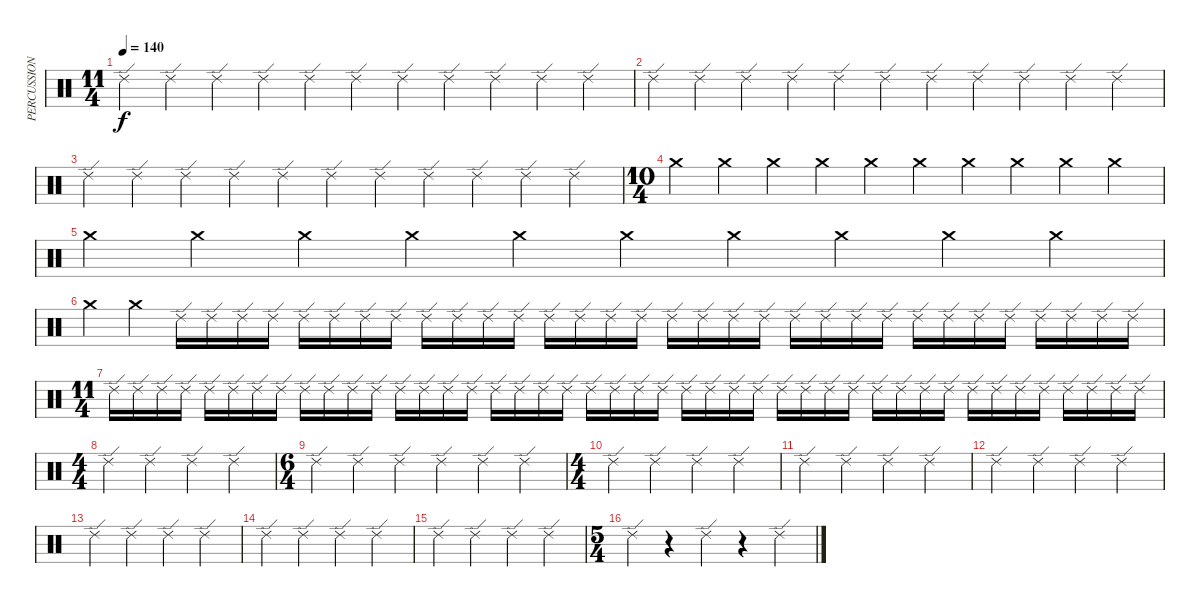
\track ("PERCUSSION" "PERCUSSION") {instrument percussion}
\staff {score}
\articulation defaults
\ts (11 4)
\tempo 140
\clef neutral
\ks c "Ride (edge) 2".4{dy f} "Ride (edge) 2".4 "Ride (edge) 2".4 "Ride (edge) 2".4 "Ride (edge) 2".4 "Ride (edge) 2".4 "Ride (edge) 2".4 "Ride (edge) 2".4 "Ride (edge) 2".4 "Ride (edge) 2".4 "Ride (edge) 2".4
|
"Ride (edge) 2".4 "Ride (edge) 2".4 "Ride (edge) 2".4 "Ride (edge) 2".4 "Ride (edge) 2".4 "Ride (edge) 2".4 "Ride (edge) 2".4 "Ride (edge) 2".4 "Ride (edge) 2".4 "Ride (edge) 2".4 "Ride (edge) 2".4 |
"Ride (edge) 2".4 "Ride (edge) 2".4 "Ride (edge) 2".4 "Ride (edge) 2".4 "Ride (edge) 2".4 "Ride (edge) 2".4 "Ride (edge) 2".4 "Ride (edge) 2".4 "Ride (edge) 2".4 "Ride (edge) 2".4 "Ride (edge) 2".4 |
\ts (10 4)
"Crash medium (hit)".4 "Crash medium (hit)".4 "Crash medium (hit)".4 "Crash medium (hit)".4 "Crash medium (hit)".4 "Crash medium (hit)".4 "Crash medium (hit)".4 "Crash medium (hit)".4 "Crash medium (hit)".4 "Crash medium (hit)".4 |
"Crash medium (hit)".4 "Crash medium (hit)".4 "Crash medium (hit)".4 "Crash medium (hit)".4 "Crash medium (hit)".4 "Crash medium (hit)".4 "Crash medium (hit)".4 "Crash medium (hit)".4 "Crash medium (hit)".4 "Crash medium (hit)".4 |
"Crash medium (hit)".4 "Crash medium (hit)".4 "Ride (edge) 2".16 "Ride (edge) 2".16 "Ride (edge) 2".16 "Ride (edge) 2".16 "Ride (edge) 2".16 "Ride (edge) 2".16 "Ride (edge) 2".16 "Ride (edge) 2".16 "Ride (edge) 2".16 "Ride (edge) 2".16 "Ride (edge) 2".16 "Ride (edge) 2".16 "Ride (edge) 2".16 "Ride (edge) 2".16 "Ride (edge) 2".16 "Ride (edge) 2".16 "Ride (edge) 2".16 "Ride (edge) 2".16 "Ride (edge) 2".16 "Ride (edge) 2".16 "Ride (edge) 2".16 "Ride (edge) 2".16 "Ride (edge) 2".16 "Ride (edge) 2".16 "Ride (edge) 2".16 "Ride (edge) 2".16 "Ride (edge) 2".16 "Ride (edge) 2".16 "Ride (edge) 2".16 "Ride (edge) 2".16 "Ride (edge) 2".16 "Ride (edge) 2".16 |
\ts (11 4)
"Ride (edge) 2".16 "Ride (edge) 2".16 "Ride (edge) 2".16 "Ride (edge) 2".16 "Ride (edge) 2".16 "Ride (edge) 2".16 "Ride (edge) 2".16 "Ride (edge) 2".16 "Ride (edge) 2".16 "Ride (edge) 2".16 "Ride (edge) 2".16 "Ride (edge) 2".16 "Ride (edge) 2".16 "Ride (edge) 2".16 "Ride (edge) 2".16 "Ride (edge) 2".16 "Ride (edge) 2".16 "Ride (edge) 2".16 "Ride (edge) 2".16 "Ride (edge) 2".16 "Ride (edge) 2".16 "Ride (edge) 2".16 "Ride (edge) 2".16 "Ride (edge) 2".16 "Ride (edge) 2".16 "Ride (edge) 2".16 "Ride (edge) 2".16 "Ride (edge) 2".16 "Ride (edge) 2".16 "Ride (edge) 2".16 "Ride (edge) 2".16 "Ride (edge) 2".16 "Ride (edge) 2".16 "Ride (edge) 2".16 "Ride (edge) 2".16 "Ride (edge) 2".16 "Ride (edge) 2".16 "Ride (edge) 2".16 "Ride (edge) 2".16 "Ride (edge) 2".16 "Ride (edge) 2".16 "Ride (edge) 2".16 "Ride (edge) 2".16 "Ride (edge) 2".16 |
\ts (4 4)
"Ride (edge) 2".4 "Ride (edge) 2".4 "Ride (edge) 2".4 "Ride (edge) 2".4 |
\ts (6 4)
"Ride (edge) 2".4 "Ride (edge) 2".4 "Ride (edge) 2".4 "Ride (edge) 2".4 "Ride (edge) 2".4 "Ride (edge) 2".4 |
\ts (4 4)
"Ride (edge) 2".4 "Ride (edge) 2".4 "Ride (edge) 2".4 "Ride (edge) 2".4 |
"Ride (edge) 2".4 "Ride (edge) 2".4 "Ride (edge) 2".4 "Ride (edge) 2".4 |
"Ride (edge) 2".4 "Ride (edge) 2".4 "Ride (edge) 2".4 "Ride (edge) 2".4 |
"Ride (edge) 2".4 "Ride (edge) 2".4 "Ride (edge) 2".4 "Ride (edge) 2".4 |
"Ride (edge) 2".4 "Ride (edge) 2".4 "Ride (edge) 2".4 "Ride (edge) 2".4 |
"Ride (edge) 2".4 "Ride (edge) 2".4 "Ride (edge) 2".4 "Ride (edge) 2".4 |
\ts (5 4)
"Ride (edge) 2".4 r.4 "Ride (edge) 2".4 r.4 "Ride (edge) 2".4
